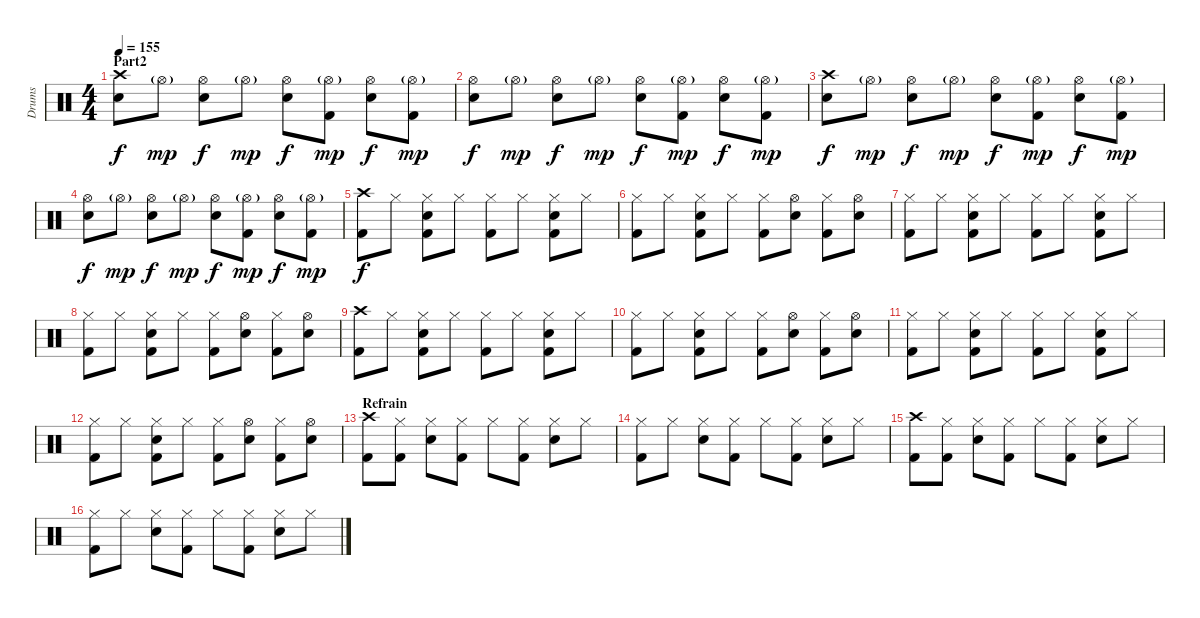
\track ("Drums" "Drums") {instrument percussion}
\staff {score}
\articulation defaults
\ts (4 4)
\section ("" "Part2")
\tempo 155
\clef neutral
\ks c
("Crash high (hit)" "Electric Snare (hit)").8{dy f} "Hi-Hat (open)"{g}.8{dy mp} ("Hi-Hat (open)" "Electric Snare (hit)").8{dy f} "Hi-Hat (open)"{g}.8{dy mp} ("Hi-Hat (open)" "Electric Snare (hit)").8{dy f} ("Hi-Hat (open)"{g} "Kick (hit) 2").8{dy mp} ("Hi-Hat (open)" "Electric Snare (hit)").8{dy f} ("Hi-Hat (open)"{g} "Kick (hit) 2").8{dy mp} |
("Hi-Hat (open)" "Electric Snare (hit)").8{dy f} "Hi-Hat (open)"{g}.8{dy mp} ("Hi-Hat (open)" "Electric Snare (hit)").8{dy f} "Hi-Hat (open)"{g}.8{dy mp} ("Hi-Hat (open)" "Electric Snare (hit)").8{dy f} ("Hi-Hat (open)"{g} "Kick (hit) 2").8{dy mp} ("Hi-Hat (open)" "Electric Snare (hit)").8{dy f} ("Hi-Hat (open)"{g} "Kick (hit) 2").8{dy mp} |
("Crash high (hit)" "Electric Snare (hit)").8{dy f} "Hi-Hat (open)"{g}.8{dy mp} ("Hi-Hat (open)" "Electric Snare (hit)").8{dy f} "Hi-Hat (open)"{g}.8{dy mp} ("Hi-Hat (open)" "Electric Snare (hit)").8{dy f} ("Hi-Hat (open)"{g} "Kick (hit) 2").8{dy mp} ("Hi-Hat (open)" "Electric Snare (hit)").8{dy f} ("Hi-Hat (open)"{g} "Kick (hit) 2").8{dy mp} |
("Hi-Hat (open)" "Electric Snare (hit)").8{dy f} "Hi-Hat (open)"{g}.8{dy mp} ("Hi-Hat (open)" "Electric Snare (hit)").8{dy f} "Hi-Hat (open)"{g}.8{dy mp} ("Hi-Hat (open)" "Electric Snare (hit)").8{dy f} ("Hi-Hat (open)"{g} "Kick (hit) 2").8{dy mp} ("Hi-Hat (open)" "Electric Snare (hit)").8{dy f} ("Hi-Hat (open)"{g} "Kick (hit) 2").8{dy mp} |
("Crash high (hit)" "Kick (hit) 2").8{dy f} "Hi-Hat (closed)".8 ("Hi-Hat (closed)" "Kick (hit) 2" "Electric Snare (hit)").8 "Hi-Hat (closed)".8 ("Hi-Hat (closed)" "Kick (hit) 2").8 "Hi-Hat (closed)".8 ("Hi-Hat (closed)" "Kick (hit) 2" "Electric Snare (hit)").8 "Hi-Hat (closed)".8 |
("Hi-Hat (closed)" "Kick (hit) 2").8 "Hi-Hat (closed)".8 ("Hi-Hat (closed)" "Kick (hit) 2" "Electric Snare (hit)").8 "Hi-Hat (closed)".8 ("Hi-Hat (closed)" "Kick (hit) 2").8 ("Hi-Hat (open)" "Electric Snare (hit)").8 ("Hi-Hat (closed)" "Kick (hit) 2").8 ("Hi-Hat (open)" "Electric Snare (hit)").8 |
("Hi-Hat (closed)" "Kick (hit) 2").8 "Hi-Hat (closed)".8 ("Hi-Hat (closed)" "Kick (hit) 2" "Electric Snare (hit)").8 "Hi-Hat (closed)".8 ("Hi-Hat (closed)" "Kick (hit) 2").8 "Hi-Hat (closed)".8 ("Hi-Hat (closed)" "Kick (hit) 2" "Electric Snare (hit)").8 "Hi-Hat (closed)".8 |
("Hi-Hat (closed)" "Kick (hit) 2").8 "Hi-Hat (closed)".8 ("Hi-Hat (closed)" "Kick (hit) 2" "Electric Snare (hit)").8 "Hi-Hat (closed)".8 ("Hi-Hat (closed)" "Kick (hit) 2").8 ("Hi-Hat (open)" "Electric Snare (hit)").8 ("Hi-Hat (closed)" "Kick (hit) 2").8 ("Hi-Hat (open)" "Electric Snare (hit)").8 |
("Crash high (hit)" "Kick (hit) 2").8 "Hi-Hat (closed)".8 ("Hi-Hat (closed)" "Kick (hit) 2" "Electric Snare (hit)").8 "Hi-Hat (closed)".8 ("Hi-Hat (closed)" "Kick (hit) 2").8 "Hi-Hat (closed)".8 ("Hi-Hat (closed)" "Kick (hit) 2" "Electric Snare (hit)").8 "Hi-Hat (closed)".8 |
("Hi-Hat (closed)" "Kick (hit) 2").8 "Hi-Hat (closed)".8 ("Hi-Hat (closed)" "Kick (hit) 2" "Electric Snare (hit)").8 "Hi-Hat (closed)".8 ("Hi-Hat (closed)" "Kick (hit) 2").8 ("Hi-Hat (open)" "Electric Snare (hit)").8 ("Hi-Hat (closed)" "Kick (hit) 2").8 ("Hi-Hat (open)" "Electric Snare (hit)").8 |
("Hi-Hat (closed)" "Kick (hit) 2").8 "Hi-Hat (closed)".8 ("Hi-Hat (closed)" "Kick (hit) 2" "Electric Snare (hit)").8 "Hi-Hat (closed)".8 ("Hi-Hat (closed)" "Kick (hit) 2").8 "Hi-Hat (closed)".8 ("Hi-Hat (closed)" "Kick (hit) 2" "Electric Snare (hit)").8 "Hi-Hat (closed)".8 |
("Hi-Hat (closed)" "Kick (hit) 2").8 "Hi-Hat (closed)".8 ("Hi-Hat (closed)" "Kick (hit) 2" "Electric Snare (hit)").8 "Hi-Hat (closed)".8 ("Hi-Hat (closed)" "Kick (hit) 2").8 ("Hi-Hat (open)" "Electric Snare (hit)").8 ("Hi-Hat (closed)" "Kick (hit) 2").8 ("Hi-Hat (open)" "Electric Snare (hit)").8 |
\section ("" "Refrain")
("Crash high (hit)" "Kick (hit) 2").8 ("Hi-Hat (closed)" "Kick (hit) 2").8 ("Hi-Hat (closed)" "Electric Snare (hit)").8 ("Hi-Hat (closed)" "Kick (hit) 2").8 "Hi-Hat (closed)".8 ("Hi-Hat (closed)" "Kick (hit) 2").8 ("Hi-Hat (closed)" "Electric Snare (hit)").8 "Hi-Hat (closed)".8 |
("Hi-Hat (closed)" "Kick (hit) 2").8 "Hi-Hat (closed)".8 ("Hi-Hat (closed)" "Electric Snare (hit)").8 ("Hi-Hat (closed)" "Kick (hit) 2").8 "Hi-Hat (closed)".8 ("Hi-Hat (closed)" "Kick (hit) 2").8 ("Hi-Hat (closed)" "Electric Snare (hit)").8 "Hi-Hat (closed)".8 |
("Crash high (hit)" "Kick (hit) 2").8 ("Hi-Hat (closed)" "Kick (hit) 2").8 ("Hi-Hat (closed)" "Electric Snare (hit)").8 ("Hi-Hat (closed)" "Kick (hit) 2").8 "Hi-Hat (closed)".8 ("Hi-Hat (closed)" "Kick (hit) 2").8 ("Hi-Hat (closed)" "Electric Snare (hit)").8 "Hi-Hat (closed)".8 |
("Hi-Hat (closed)" "Kick (hit) 2").8 "Hi-Hat (closed)".8 ("Hi-Hat (closed)" "Electric Snare (hit)").8 ("Hi-Hat (closed)" "Kick (hit) 2").8 "Hi-Hat (closed)".8 ("Hi-Hat (closed)" "Kick (hit) 2").8 ("Hi-Hat (closed)" "Electric Snare (hit)").8 "Hi-Hat (closed)".8
